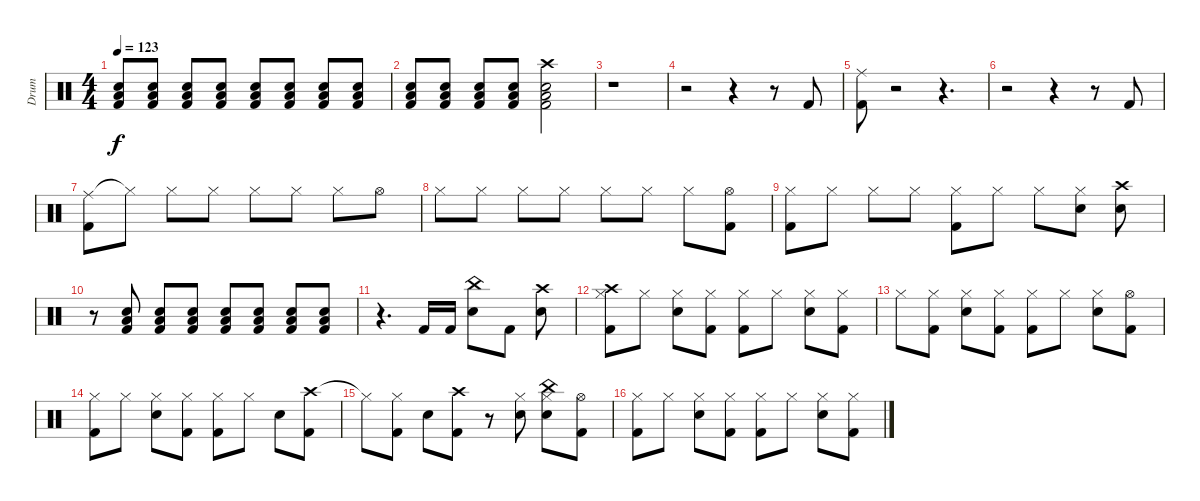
\track ("Drum" "Drum") {instrument percussion}
\staff {score}
\articulation defaults
\ts (4 4)
\tempo 123
\clef neutral
\ks c
("Low Floor Tom (hit)" "Electric Snare (hit)" "Kick (hit) 2").8{dy f} ("Low Floor Tom (hit)" "Electric Snare (hit)" "Kick (hit) 2").8 ("Low Floor Tom (hit)" "Electric Snare (hit)" "Kick (hit) 2").8 ("Low Floor Tom (hit)" "Electric Snare (hit)" "Kick (hit) 2").8 ("Low Floor Tom (hit)" "Electric Snare (hit)" "Kick (hit) 2").8 ("Low Floor Tom (hit)" "Electric Snare (hit)" "Kick (hit) 2").8 ("Low Floor Tom (hit)" "Electric Snare (hit)" "Kick (hit) 2").8 ("Low Floor Tom (hit)" "Electric Snare (hit)" "Kick (hit) 2").8 |
("Low Floor Tom (hit)" "Electric Snare (hit)" "Kick (hit) 2").8 ("Low Floor Tom (hit)" "Electric Snare (hit)" "Kick (hit) 2").8 ("Low Floor Tom (hit)" "Electric Snare (hit)" "Kick (hit) 2").8 ("Low Floor Tom (hit)" "Electric Snare (hit)" "Kick (hit) 2").8 ("Crash high (hit)" "Low Floor Tom (hit)" "Electric Snare (hit)" "Kick (hit) 2").2 |
r.1 |
r.2 r.4 r.8 "Kick (hit) 2".8 |
("Ride (middle)" "Kick (hit) 2").8 r.2 r.4{d} |
r.2 r.4 r.8 "Kick (hit) 2".8 |
("Ride (middle)" "Kick (hit) 2").8 "Hi-Hat (closed)"{t}.8 "Hi-Hat (closed)".8 "Hi-Hat (closed)".8 "Hi-Hat (closed)".8 "Hi-Hat (closed)".8 "Hi-Hat (closed)".8 "Hi-Hat (open)".8 |
"Hi-Hat (closed)".8 "Hi-Hat (closed)".8 "Hi-Hat (closed)".8 "Hi-Hat (closed)".8 "Hi-Hat (closed)".8 "Hi-Hat (closed)".8 "Hi-Hat (closed)".8 ("Hi-Hat (open)" "Kick (hit) 2").8 |
("Hi-Hat (closed)" "Kick (hit) 2").8 "Hi-Hat (closed)".8 "Hi-Hat (closed)".8 "Hi-Hat (closed)".8 ("Hi-Hat (closed)" "Kick (hit) 2").8 "Hi-Hat (closed)".8 "Hi-Hat (closed)".8 ("Hi-Hat (closed)" "Electric Snare (hit)").8 ("Crash high (hit)" "Electric Snare (hit)").8 |
r.8 ("Low Floor Tom (hit)" "Electric Snare (hit)" "Kick (hit) 2").8 ("Low Floor Tom (hit)" "Electric Snare (hit)" "Kick (hit) 2").8 ("Low Floor Tom (hit)" "Electric Snare (hit)" "Kick (hit) 2").8 ("Low Floor Tom (hit)" "Electric Snare (hit)" "Kick (hit) 2").8 ("Low Floor Tom (hit)" "Electric Snare (hit)" "Kick (hit) 2").8 ("Low Floor Tom (hit)" "Electric Snare (hit)" "Kick (hit) 2").8 ("Low Floor Tom (hit)" "Electric Snare (hit)" "Kick (hit) 2").8 |
r.4{d} "Kick (hit) 2".16 "Kick (hit) 2".16 ("China (hit)" "Electric Snare (hit)").8 "Kick (hit) 2".8 ("Crash high (hit)" "Electric Snare (hit)").8 |
("Crash high (hit)" "Hi-Hat (closed)" "Kick (hit) 2").8 "Hi-Hat (closed)".8 ("Hi-Hat (closed)" "Electric Snare (hit)").8 ("Hi-Hat (closed)" "Kick (hit) 2").8 ("Hi-Hat (closed)" "Kick (hit) 2").8 "Hi-Hat (closed)".8 ("Hi-Hat (closed)" "Electric Snare (hit)").8 ("Hi-Hat (closed)" "Kick (hit) 2").8 |
"Hi-Hat (closed)".8 ("Hi-Hat (closed)" "Kick (hit) 2").8 ("Hi-Hat (closed)" "Electric Snare (hit)").8 ("Hi-Hat (closed)" "Kick (hit) 2").8 ("Hi-Hat (closed)" "Kick (hit) 2").8 "Hi-Hat (closed)".8 ("Hi-Hat (closed)" "Electric Snare (hit)").8 ("Hi-Hat (open)" "Kick (hit) 2").8 |
("Hi-Hat (closed)" "Kick (hit) 2").8 "Hi-Hat (closed)".8 ("Hi-Hat (closed)" "Electric Snare (hit)").8 ("Hi-Hat (closed)" "Kick (hit) 2").8 ("Hi-Hat (closed)" "Kick (hit) 2").8 "Hi-Hat (closed)".8 "Electric Snare (hit)".8 ("Crash high (hit)" "Kick (hit) 2").8 |
"Hi-Hat (closed)"{t}.8 ("Hi-Hat (closed)" "Kick (hit) 2").8 "Electric Snare (hit)".8 ("Crash high (hit)" "Kick (hit) 2").8 r.8 ("Hi-Hat (closed)" "Electric Snare (hit)").8 ("China (hit)" "Hi-Hat (closed)" "Electric Snare (hit)").8 ("Hi-Hat (open)" "Kick (hit) 2").8 |
("Hi-Hat (closed)" "Kick (hit) 2").8 "Hi-Hat (closed)".8 ("Hi-Hat (closed)" "Electric Snare (hit)").8 ("Hi-Hat (closed)" "Kick (hit) 2").8 ("Hi-Hat (closed)" "Kick (hit) 2").8 "Hi-Hat (closed)".8 ("Hi-Hat (closed)" "Electric Snare (hit)").8 ("Hi-Hat (closed)" "Kick (hit) 2").8
